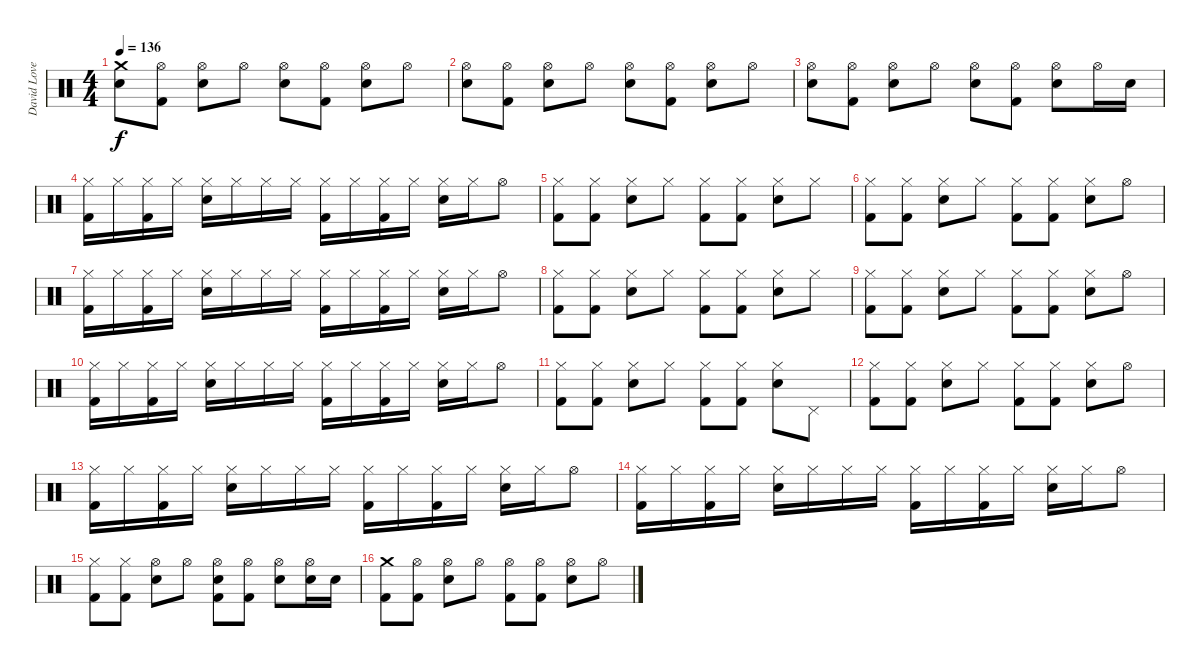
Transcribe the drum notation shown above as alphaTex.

\track ("David Lovering (Drums)" "David Love") {instrument percussion}
\staff {score}
\articulation defaults
\ts (4 4)
\tempo 136
\clef neutral
\ks c
("Crash medium (hit)" "Electric Snare (hit)").8{dy f} ("Hi-Hat (open)" "Kick (hit) 2").8 ("Hi-Hat (open)" "Electric Snare (hit)").8 "Hi-Hat (open)".8 ("Hi-Hat (open)" "Electric Snare (hit)").8 ("Hi-Hat (open)" "Kick (hit) 2").8 ("Hi-Hat (open)" "Electric Snare (hit)").8 "Hi-Hat (open)".8 |
("Hi-Hat (open)" "Electric Snare (hit)").8 ("Hi-Hat (open)" "Kick (hit) 2").8 ("Hi-Hat (open)" "Electric Snare (hit)").8 "Hi-Hat (open)".8 ("Hi-Hat (open)" "Electric Snare (hit)").8 ("Hi-Hat (open)" "Kick (hit) 2").8 ("Hi-Hat (open)" "Electric Snare (hit)").8 "Hi-Hat (open)".8 |
("Hi-Hat (open)" "Electric Snare (hit)").8 ("Hi-Hat (open)" "Kick (hit) 2").8 ("Hi-Hat (open)" "Electric Snare (hit)").8 "Hi-Hat (open)".8 ("Hi-Hat (open)" "Electric Snare (hit)").8 ("Hi-Hat (open)" "Kick (hit) 2").8 ("Hi-Hat (open)" "Electric Snare (hit)").8 "Hi-Hat (open)".16 "Electric Snare (hit)".16 |
("Hi-Hat (closed)" "Kick (hit) 2").16 "Hi-Hat (closed)".16 ("Hi-Hat (closed)" "Kick (hit) 2").16 "Hi-Hat (closed)".16 ("Hi-Hat (closed)" "Electric Snare (hit)").16 "Hi-Hat (closed)".16 "Hi-Hat (closed)".16 "Hi-Hat (closed)".16 ("Hi-Hat (closed)" "Kick (hit) 2").16 "Hi-Hat (closed)".16 ("Hi-Hat (closed)" "Kick (hit) 2").16 "Hi-Hat (closed)".16 ("Hi-Hat (closed)" "Electric Snare (hit)").16 "Hi-Hat (closed)".16 "Hi-Hat (open)".8 |
("Hi-Hat (closed)" "Kick (hit) 2").8 ("Hi-Hat (closed)" "Kick (hit) 2").8 ("Hi-Hat (closed)" "Electric Snare (hit)").8 "Hi-Hat (closed)".8 ("Hi-Hat (closed)" "Kick (hit) 2").8 ("Hi-Hat (closed)" "Kick (hit) 2").8 ("Hi-Hat (closed)" "Electric Snare (hit)").8 "Hi-Hat (closed)".8 |
("Hi-Hat (closed)" "Kick (hit) 2").8 ("Hi-Hat (closed)" "Kick (hit) 2").8 ("Hi-Hat (closed)" "Electric Snare (hit)").8 "Hi-Hat (closed)".8 ("Hi-Hat (closed)" "Kick (hit) 2").8 ("Hi-Hat (closed)" "Kick (hit) 2").8 ("Hi-Hat (closed)" "Electric Snare (hit)").8 "Hi-Hat (open)".8 |
("Hi-Hat (closed)" "Kick (hit) 2").16 "Hi-Hat (closed)".16 ("Hi-Hat (closed)" "Kick (hit) 2").16 "Hi-Hat (closed)".16 ("Hi-Hat (closed)" "Electric Snare (hit)").16 "Hi-Hat (closed)".16 "Hi-Hat (closed)".16 "Hi-Hat (closed)".16 ("Hi-Hat (closed)" "Kick (hit) 2").16 "Hi-Hat (closed)".16 ("Hi-Hat (closed)" "Kick (hit) 2").16 "Hi-Hat (closed)".16 ("Hi-Hat (closed)" "Electric Snare (hit)").16 "Hi-Hat (closed)".16 "Hi-Hat (open)".8 |
("Hi-Hat (closed)" "Kick (hit) 2").8 ("Hi-Hat (closed)" "Kick (hit) 2").8 ("Hi-Hat (closed)" "Electric Snare (hit)").8 "Hi-Hat (closed)".8 ("Hi-Hat (closed)" "Kick (hit) 2").8 ("Hi-Hat (closed)" "Kick (hit) 2").8 ("Hi-Hat (closed)" "Electric Snare (hit)").8 "Hi-Hat (closed)".8 |
("Hi-Hat (closed)" "Kick (hit) 2").8 ("Hi-Hat (closed)" "Kick (hit) 2").8 ("Hi-Hat (closed)" "Electric Snare (hit)").8 "Hi-Hat (closed)".8 ("Hi-Hat (closed)" "Kick (hit) 2").8 ("Hi-Hat (closed)" "Kick (hit) 2").8 ("Hi-Hat (closed)" "Electric Snare (hit)").8 "Hi-Hat (open)".8 |
("Hi-Hat (closed)" "Kick (hit) 2").16 "Hi-Hat (closed)".16 ("Hi-Hat (closed)" "Kick (hit) 2").16 "Hi-Hat (closed)".16 ("Hi-Hat (closed)" "Electric Snare (hit)").16 "Hi-Hat (closed)".16 "Hi-Hat (closed)".16 "Hi-Hat (closed)".16 ("Hi-Hat (closed)" "Kick (hit) 2").16 "Hi-Hat (closed)".16 ("Hi-Hat (closed)" "Kick (hit) 2").16 "Hi-Hat (closed)".16 ("Hi-Hat (closed)" "Electric Snare (hit)").16 "Hi-Hat (closed)".16 "Hi-Hat (open)".8 |
("Hi-Hat (closed)" "Kick (hit) 2").8 ("Hi-Hat (closed)" "Kick (hit) 2").8 ("Hi-Hat (closed)" "Electric Snare (hit)").8 "Hi-Hat (closed)".8 ("Hi-Hat (closed)" "Kick (hit) 2").8 ("Hi-Hat (closed)" "Kick (hit) 2").8 ("Hi-Hat (closed)" "Electric Snare (hit)").8 "Pedal Hi-Hat (hit)".8 |
("Hi-Hat (closed)" "Kick (hit) 2").8 ("Hi-Hat (closed)" "Kick (hit) 2").8 ("Hi-Hat (closed)" "Electric Snare (hit)").8 "Hi-Hat (closed)".8 ("Hi-Hat (closed)" "Kick (hit) 2").8 ("Hi-Hat (closed)" "Kick (hit) 2").8 ("Hi-Hat (closed)" "Electric Snare (hit)").8 "Hi-Hat (open)".8 |
("Hi-Hat (closed)" "Kick (hit) 2").16 "Hi-Hat (closed)".16 ("Hi-Hat (closed)" "Kick (hit) 2").16 "Hi-Hat (closed)".16 ("Hi-Hat (closed)" "Electric Snare (hit)").16 "Hi-Hat (closed)".16 "Hi-Hat (closed)".16 "Hi-Hat (closed)".16 ("Hi-Hat (closed)" "Kick (hit) 2").16 "Hi-Hat (closed)".16 ("Hi-Hat (closed)" "Kick (hit) 2").16 "Hi-Hat (closed)".16 ("Hi-Hat (closed)" "Electric Snare (hit)").16 "Hi-Hat (closed)".16 "Hi-Hat (open)".8 |
("Hi-Hat (closed)" "Kick (hit) 2").16 "Hi-Hat (closed)".16 ("Hi-Hat (closed)" "Kick (hit) 2").16 "Hi-Hat (closed)".16 ("Hi-Hat (closed)" "Electric Snare (hit)").16 "Hi-Hat (closed)".16 "Hi-Hat (closed)".16 "Hi-Hat (closed)".16 ("Hi-Hat (closed)" "Kick (hit) 2").16 "Hi-Hat (closed)".16 ("Hi-Hat (closed)" "Kick (hit) 2").16 "Hi-Hat (closed)".16 ("Hi-Hat (closed)" "Electric Snare (hit)").16 "Hi-Hat (closed)".16 "Hi-Hat (open)".8 |
("Hi-Hat (closed)" "Kick (hit) 2").8 ("Hi-Hat (closed)" "Kick (hit) 2").8 ("Hi-Hat (open)" "Electric Snare (hit)").8 "Hi-Hat (open)".8 ("Hi-Hat (open)" "Electric Snare (hit)" "Kick (hit) 2").8 ("Hi-Hat (open)" "Kick (hit) 2").8 ("Hi-Hat (open)" "Electric Snare (hit)").8 ("Hi-Hat (open)" "Electric Snare (hit)").16 "Electric Snare (hit)".16 |
("Crash medium (hit)" "Kick (hit) 2").8 ("Hi-Hat (open)" "Kick (hit) 2").8 ("Hi-Hat (open)" "Electric Snare (hit)").8 "Hi-Hat (open)".8 ("Hi-Hat (open)" "Kick (hit) 2").8 ("Hi-Hat (open)" "Kick (hit) 2").8 ("Hi-Hat (open)" "Electric Snare (hit)").8 "Hi-Hat (open)".8
